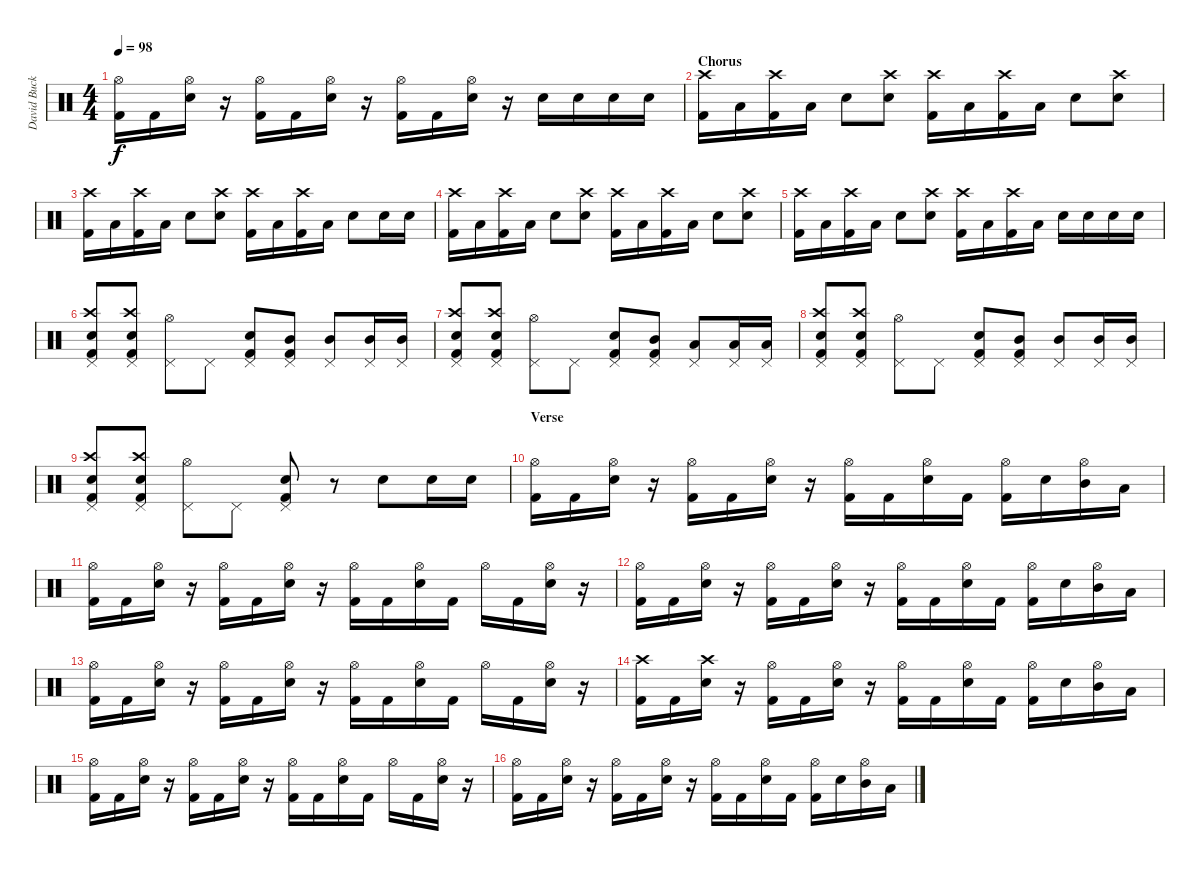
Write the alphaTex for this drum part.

\track ("David Buckner" "David Buck") {instrument percussion}
\staff {score}
\articulation defaults
\ts (4 4)
\tempo 98
\clef neutral
\ks c
("Hi-Hat (open)" "Kick (hit) 2").16{dy f} "Kick (hit) 2".16 ("Hi-Hat (open)" "Snare (hit) 2").16 r.16 ("Hi-Hat (open)" "Kick (hit) 2").16 "Kick (hit) 2".16 ("Hi-Hat (open)" "Snare (hit) 2").16 r.16 ("Hi-Hat (open)" "Kick (hit) 2").16 "Kick (hit) 2".16 ("Hi-Hat (open)" "Snare (hit) 2").16 r.16 "Snare (hit) 2".16 "Snare (hit) 2".16 "Snare (hit) 2".16 "Snare (hit) 2".16 |
\section ("" "Chorus")
("Crash high (hit)" "Kick (hit) 2").16 "Low Tom (hit)".16 ("Crash high (hit)" "Kick (hit) 2").16 "Low Tom (hit)".16 "Snare (hit) 2".8 ("Crash high (hit)" "Snare (hit) 2").8 ("Crash high (hit)" "Kick (hit) 2").16 "Low Tom (hit)".16 ("Crash high (hit)" "Kick (hit) 2").16 "Low Tom (hit)".16 "Snare (hit) 2".8 ("Crash high (hit)" "Snare (hit) 2").8 |
("Crash high (hit)" "Kick (hit) 2").16 "Low Tom (hit)".16 ("Crash high (hit)" "Kick (hit) 2").16 "Low Tom (hit)".16 "Snare (hit) 2".8 ("Crash high (hit)" "Snare (hit) 2").8 ("Crash high (hit)" "Kick (hit) 2").16 "Low Tom (hit)".16 ("Crash high (hit)" "Kick (hit) 2").16 "Low Tom (hit)".16 "Snare (hit) 2".8 "Snare (hit) 2".16 "Snare (hit) 2".16 |
("Crash high (hit)" "Kick (hit) 2").16 "Low Tom (hit)".16 ("Crash high (hit)" "Kick (hit) 2").16 "Low Tom (hit)".16 "Snare (hit) 2".8 ("Crash high (hit)" "Snare (hit) 2").8 ("Crash high (hit)" "Kick (hit) 2").16 "Low Tom (hit)".16 ("Crash high (hit)" "Kick (hit) 2").16 "Low Tom (hit)".16 "Snare (hit) 2".8 ("Crash high (hit)" "Snare (hit) 2").8 |
("Crash high (hit)" "Kick (hit) 2").16 "Low Tom (hit)".16 ("Crash high (hit)" "Kick (hit) 2").16 "Low Tom (hit)".16 "Snare (hit) 2".8 ("Crash high (hit)" "Snare (hit) 2").8 ("Crash high (hit)" "Kick (hit) 2").16 "Low Tom (hit)".16 ("Crash high (hit)" "Kick (hit) 2").16 "Low Tom (hit)".16 "Snare (hit) 2".16 "Snare (hit) 2".16 "Snare (hit) 2".16 "Snare (hit) 2".16 |
("Crash high (hit)" "Snare (hit) 2" "Pedal Hi-Hat (hit)" "Kick (hit) 2").8 ("Crash high (hit)" "Snare (hit) 2" "Pedal Hi-Hat (hit)" "Kick (hit) 2").8 ("Hi-Hat (open)" "Pedal Hi-Hat (hit)").8 "Pedal Hi-Hat (hit)".8 ("Snare (hit) 2" "Pedal Hi-Hat (hit)" "Kick (hit) 2").8 ("Mid Tom (hit)" "Pedal Hi-Hat (hit)" "Kick (hit) 2").8 ("Mid Tom (hit)" "Pedal Hi-Hat (hit)").8 ("Mid Tom (hit)" "Pedal Hi-Hat (hit)").16 ("Mid Tom (hit)" "Pedal Hi-Hat (hit)").16 |
("Crash high (hit)" "Snare (hit) 2" "Pedal Hi-Hat (hit)" "Kick (hit) 2").8 ("Crash high (hit)" "Snare (hit) 2" "Pedal Hi-Hat (hit)" "Kick (hit) 2").8 ("Hi-Hat (open)" "Pedal Hi-Hat (hit)").8 "Pedal Hi-Hat (hit)".8 ("Snare (hit) 2" "Pedal Hi-Hat (hit)" "Kick (hit) 2").8 ("Mid Tom (hit)" "Pedal Hi-Hat (hit)" "Kick (hit) 2").8 ("Low Tom (hit)" "Pedal Hi-Hat (hit)").8 ("Low Tom (hit)" "Pedal Hi-Hat (hit)").16 ("Low Tom (hit)" "Pedal Hi-Hat (hit)").16 |
("Crash high (hit)" "Snare (hit) 2" "Pedal Hi-Hat (hit)" "Kick (hit) 2").8 ("Crash high (hit)" "Snare (hit) 2" "Pedal Hi-Hat (hit)" "Kick (hit) 2").8 ("Hi-Hat (open)" "Pedal Hi-Hat (hit)").8 "Pedal Hi-Hat (hit)".8 ("Snare (hit) 2" "Pedal Hi-Hat (hit)" "Kick (hit) 2").8 ("Mid Tom (hit)" "Pedal Hi-Hat (hit)" "Kick (hit) 2").8 ("Mid Tom (hit)" "Pedal Hi-Hat (hit)").8 ("Mid Tom (hit)" "Pedal Hi-Hat (hit)").16 ("Mid Tom (hit)" "Pedal Hi-Hat (hit)").16 |
("Crash high (hit)" "Snare (hit) 2" "Pedal Hi-Hat (hit)" "Kick (hit) 2").8 ("Crash high (hit)" "Snare (hit) 2" "Pedal Hi-Hat (hit)" "Kick (hit) 2").8 ("Hi-Hat (open)" "Pedal Hi-Hat (hit)").8 "Pedal Hi-Hat (hit)".8 ("Snare (hit) 2" "Pedal Hi-Hat (hit)" "Kick (hit) 2").8 r.8 "Snare (hit) 2".8 "Snare (hit) 2".16 "Snare (hit) 2".16 |
\section ("" "Verse")
("Hi-Hat (open)" "Kick (hit) 2").16 "Kick (hit) 2".16 ("Hi-Hat (open)" "Snare (hit) 2").16 r.16 ("Hi-Hat (open)" "Kick (hit) 2").16 "Kick (hit) 2".16 ("Hi-Hat (open)" "Snare (hit) 2").16 r.16 ("Hi-Hat (open)" "Kick (hit) 2").16 "Kick (hit) 2".16 ("Hi-Hat (open)" "Snare (hit) 2").16 "Kick (hit) 2".16 ("Hi-Hat (open)" "Kick (hit) 2").16 "Snare (hit) 2".16 ("Hi-Hat (open)" "Mid Tom (hit)").16 "Low Tom (hit)".16 |
("Hi-Hat (open)" "Kick (hit) 2").16 "Kick (hit) 2".16 ("Hi-Hat (open)" "Snare (hit) 2").16 r.16 ("Hi-Hat (open)" "Kick (hit) 2").16 "Kick (hit) 2".16 ("Hi-Hat (open)" "Snare (hit) 2").16 r.16 ("Hi-Hat (open)" "Kick (hit) 2").16 "Kick (hit) 2".16 ("Hi-Hat (open)" "Snare (hit) 2").16 "Kick (hit) 2".16 "Hi-Hat (open)".16 "Kick (hit) 2".16 ("Hi-Hat (open)" "Snare (hit) 2").16 r.16 |
("Hi-Hat (open)" "Kick (hit) 2").16 "Kick (hit) 2".16 ("Hi-Hat (open)" "Snare (hit) 2").16 r.16 ("Hi-Hat (open)" "Kick (hit) 2").16 "Kick (hit) 2".16 ("Hi-Hat (open)" "Snare (hit) 2").16 r.16 ("Hi-Hat (open)" "Kick (hit) 2").16 "Kick (hit) 2".16 ("Hi-Hat (open)" "Snare (hit) 2").16 "Kick (hit) 2".16 ("Hi-Hat (open)" "Kick (hit) 2").16 "Snare (hit) 2".16 ("Hi-Hat (open)" "Mid Tom (hit)").16 "Low Tom (hit)".16 |
("Hi-Hat (open)" "Kick (hit) 2").16 "Kick (hit) 2".16 ("Hi-Hat (open)" "Snare (hit) 2").16 r.16 ("Hi-Hat (open)" "Kick (hit) 2").16 "Kick (hit) 2".16 ("Hi-Hat (open)" "Snare (hit) 2").16 r.16 ("Hi-Hat (open)" "Kick (hit) 2").16 "Kick (hit) 2".16 ("Hi-Hat (open)" "Snare (hit) 2").16 "Kick (hit) 2".16 "Hi-Hat (open)".16 "Kick (hit) 2".16 ("Hi-Hat (open)" "Snare (hit) 2").16 r.16 |
("Crash high (hit)" "Kick (hit) 2").16 "Kick (hit) 2".16 ("Crash high (hit)" "Snare (hit) 2").16 r.16 ("Hi-Hat (open)" "Kick (hit) 2").16 "Kick (hit) 2".16 ("Hi-Hat (open)" "Snare (hit) 2").16 r.16 ("Hi-Hat (open)" "Kick (hit) 2").16 "Kick (hit) 2".16 ("Hi-Hat (open)" "Snare (hit) 2").16 "Kick (hit) 2".16 ("Hi-Hat (open)" "Kick (hit) 2").16 "Snare (hit) 2".16 ("Hi-Hat (open)" "Mid Tom (hit)").16 "Low Tom (hit)".16 |
("Hi-Hat (open)" "Kick (hit) 2").16 "Kick (hit) 2".16 ("Hi-Hat (open)" "Snare (hit) 2").16 r.16 ("Hi-Hat (open)" "Kick (hit) 2").16 "Kick (hit) 2".16 ("Hi-Hat (open)" "Snare (hit) 2").16 r.16 ("Hi-Hat (open)" "Kick (hit) 2").16 "Kick (hit) 2".16 ("Hi-Hat (open)" "Snare (hit) 2").16 "Kick (hit) 2".16 "Hi-Hat (open)".16 "Kick (hit) 2".16 ("Hi-Hat (open)" "Snare (hit) 2").16 r.16 |
("Hi-Hat (open)" "Kick (hit) 2").16 "Kick (hit) 2".16 ("Hi-Hat (open)" "Snare (hit) 2").16 r.16 ("Hi-Hat (open)" "Kick (hit) 2").16 "Kick (hit) 2".16 ("Hi-Hat (open)" "Snare (hit) 2").16 r.16 ("Hi-Hat (open)" "Kick (hit) 2").16 "Kick (hit) 2".16 ("Hi-Hat (open)" "Snare (hit) 2").16 "Kick (hit) 2".16 ("Hi-Hat (open)" "Kick (hit) 2").16 "Snare (hit) 2".16 ("Hi-Hat (open)" "Mid Tom (hit)").16 "Low Tom (hit)".16
